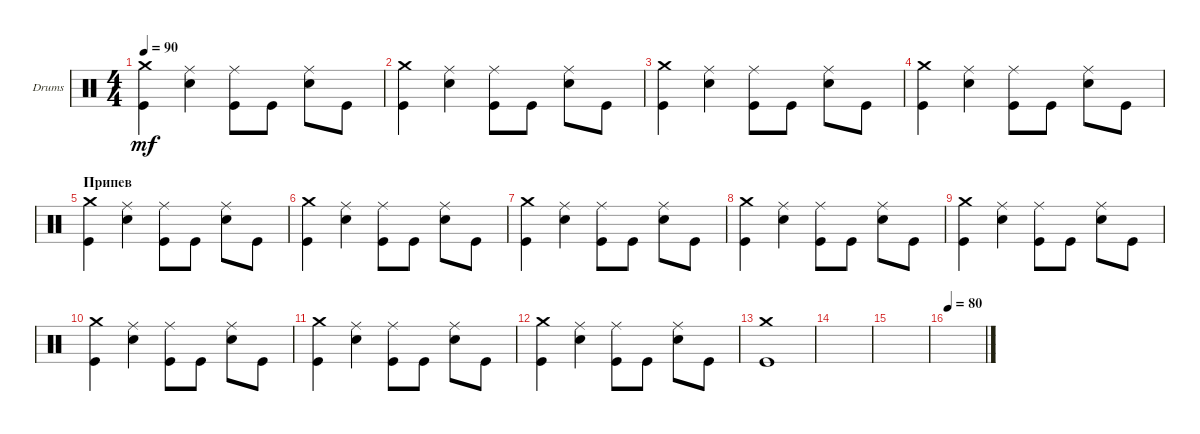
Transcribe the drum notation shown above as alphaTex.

\bracketExtendMode groupsimilarinstruments
\firstSystemTrackNameOrientation horizontal
\otherSystemsTrackNameOrientation horizontal
\track ("Drumkit" "Drums") {instrument percussion}
\staff {score}
\articulation defaults
\ts (4 4)
\tempo 90
\clef neutral
\ks c
("Kick (hit)" "Crash medium (hit)").4{dy mf} ("Snare (hit) 2" "Ride (middle)").4 ("Kick (hit)" "Ride (middle)").8 "Kick (hit)".8 ("Snare (hit) 2" "Ride (middle)").8 "Kick (hit)".8 |
("Kick (hit)" "Crash medium (hit)").4 ("Snare (hit) 2" "Ride (middle)").4 ("Kick (hit)" "Ride (middle)").8 "Kick (hit)".8 ("Snare (hit) 2" "Ride (middle)").8 "Kick (hit)".8 |
("Kick (hit)" "Crash medium (hit)").4 ("Snare (hit) 2" "Ride (middle)").4 ("Kick (hit)" "Ride (middle)").8 "Kick (hit)".8 ("Snare (hit) 2" "Ride (middle)").8 "Kick (hit)".8 |
("Kick (hit)" "Crash medium (hit)").4 ("Snare (hit) 2" "Ride (middle)").4 ("Kick (hit)" "Ride (middle)").8 "Kick (hit)".8 ("Snare (hit) 2" "Ride (middle)").8 "Kick (hit)".8 |
\section ("" "Припев")
("Kick (hit)" "Crash medium (hit)").4 ("Snare (hit) 2" "Ride (middle)").4 ("Kick (hit)" "Ride (middle)").8 "Kick (hit)".8 ("Snare (hit) 2" "Ride (middle)").8 "Kick (hit)".8 |
("Kick (hit)" "Crash medium (hit)").4 ("Snare (hit) 2" "Ride (middle)").4 ("Kick (hit)" "Ride (middle)").8 "Kick (hit)".8 ("Snare (hit) 2" "Ride (middle)").8 "Kick (hit)".8 |
("Kick (hit)" "Crash medium (hit)").4 ("Snare (hit) 2" "Ride (middle)").4 ("Kick (hit)" "Ride (middle)").8 "Kick (hit)".8 ("Snare (hit) 2" "Ride (middle)").8 "Kick (hit)".8 |
("Kick (hit)" "Crash medium (hit)").4 ("Snare (hit) 2" "Ride (middle)").4 ("Kick (hit)" "Ride (middle)").8 "Kick (hit)".8 ("Snare (hit) 2" "Ride (middle)").8 "Kick (hit)".8 |
("Kick (hit)" "Crash medium (hit)").4 ("Snare (hit) 2" "Ride (middle)").4 ("Kick (hit)" "Ride (middle)").8 "Kick (hit)".8 ("Snare (hit) 2" "Ride (middle)").8 "Kick (hit)".8 |
("Kick (hit)" "Crash medium (hit)").4 ("Snare (hit) 2" "Ride (middle)").4 ("Kick (hit)" "Ride (middle)").8 "Kick (hit)".8 ("Snare (hit) 2" "Ride (middle)").8 "Kick (hit)".8 |
("Kick (hit)" "Crash medium (hit)").4 ("Snare (hit) 2" "Ride (middle)").4 ("Kick (hit)" "Ride (middle)").8 "Kick (hit)".8 ("Snare (hit) 2" "Ride (middle)").8 "Kick (hit)".8 |
("Kick (hit)" "Crash medium (hit)").4 ("Snare (hit) 2" "Ride (middle)").4 ("Kick (hit)" "Ride (middle)").8 "Kick (hit)".8 ("Snare (hit) 2" "Ride (middle)").8 "Kick (hit)".8 |
("Kick (hit)" "Crash medium (hit)").1 |
|
|
\tempo 80
